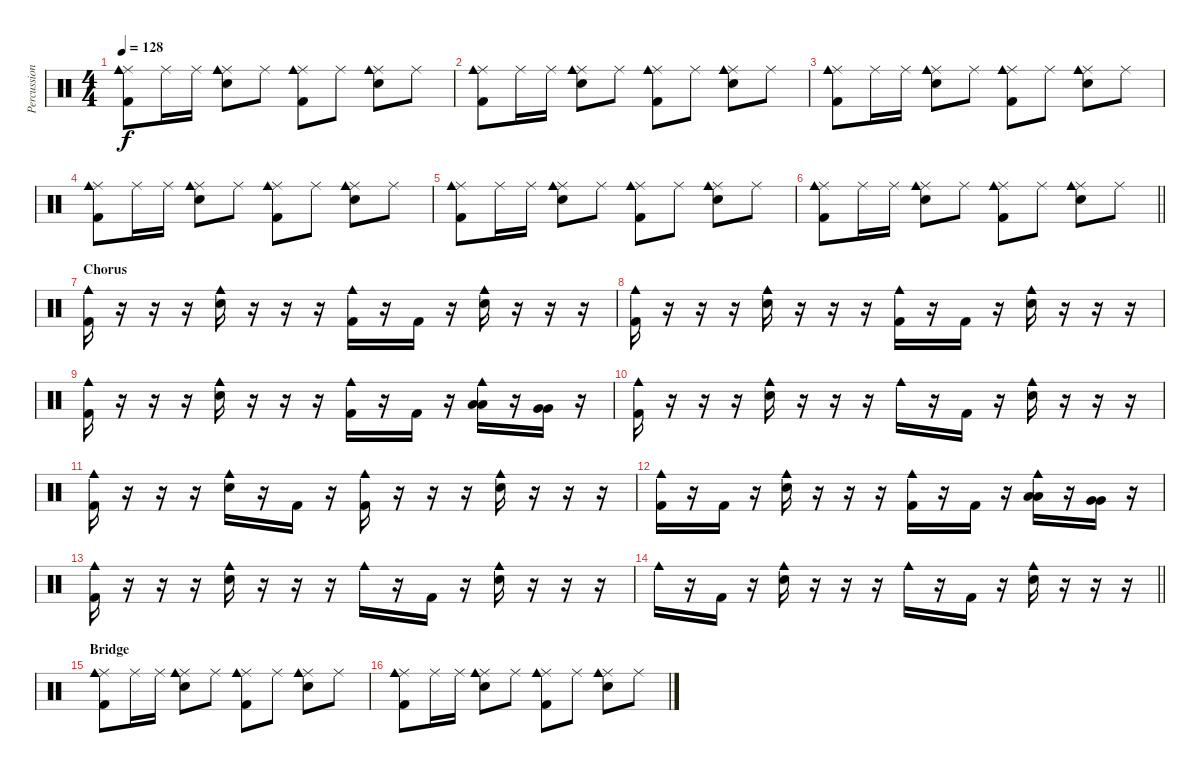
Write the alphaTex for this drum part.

\track ("Percussion" "Percussion") {instrument percussion}
\staff {score}
\articulation defaults
\ts (4 4)
\tempo 128
\clef neutral
\ks c
("Ride (middle)" "Cowbell medium (hit)" "Kick (hit) 2").8{dy f} "Ride (middle)".16 "Ride (middle)".16 ("Ride (middle)" "Cowbell medium (hit)" "Snare (hit) 2").8 "Ride (middle)".8 ("Ride (middle)" "Cowbell medium (hit)" "Kick (hit) 2").8 "Ride (middle)".8 ("Ride (middle)" "Cowbell medium (hit)" "Snare (hit) 2").8 "Ride (middle)".8 |
("Ride (middle)" "Cowbell medium (hit)" "Kick (hit) 2").8 "Ride (middle)".16 "Ride (middle)".16 ("Ride (middle)" "Cowbell medium (hit)" "Snare (hit) 2").8 "Ride (middle)".8 ("Ride (middle)" "Cowbell medium (hit)" "Kick (hit) 2").8 "Ride (middle)".8 ("Ride (middle)" "Cowbell medium (hit)" "Snare (hit) 2").8 "Ride (middle)".8 |
("Ride (middle)" "Cowbell medium (hit)" "Kick (hit) 2").8 "Ride (middle)".16 "Ride (middle)".16 ("Ride (middle)" "Cowbell medium (hit)" "Snare (hit) 2").8 "Ride (middle)".8 ("Ride (middle)" "Cowbell medium (hit)" "Kick (hit) 2").8 "Ride (middle)".8 ("Ride (middle)" "Cowbell medium (hit)" "Snare (hit) 2").8 "Ride (middle)".8 |
("Ride (middle)" "Cowbell medium (hit)" "Kick (hit) 2").8 "Ride (middle)".16 "Ride (middle)".16 ("Ride (middle)" "Cowbell medium (hit)" "Snare (hit) 2").8 "Ride (middle)".8 ("Ride (middle)" "Cowbell medium (hit)" "Kick (hit) 2").8 "Ride (middle)".8 ("Ride (middle)" "Cowbell medium (hit)" "Snare (hit) 2").8 "Ride (middle)".8 |
("Ride (middle)" "Cowbell medium (hit)" "Kick (hit) 2").8 "Ride (middle)".16 "Ride (middle)".16 ("Ride (middle)" "Cowbell medium (hit)" "Snare (hit) 2").8 "Ride (middle)".8 ("Ride (middle)" "Cowbell medium (hit)" "Kick (hit) 2").8 "Ride (middle)".8 ("Ride (middle)" "Cowbell medium (hit)" "Snare (hit) 2").8 "Ride (middle)".8 |
\barLineRight lightlight
("Ride (middle)" "Cowbell medium (hit)" "Kick (hit) 2").8 "Ride (middle)".16 "Ride (middle)".16 ("Ride (middle)" "Cowbell medium (hit)" "Snare (hit) 2").8 "Ride (middle)".8 ("Ride (middle)" "Cowbell medium (hit)" "Kick (hit) 2").8 "Ride (middle)".8 ("Ride (middle)" "Cowbell medium (hit)" "Snare (hit) 2").8 "Ride (middle)".8 |
\section ("" "Chorus")
("Cowbell medium (hit)" "Kick (hit) 2").16 r.16 r.16 r.16 ("Cowbell medium (hit)" "Snare (hit) 2").16 r.16 r.16 r.16 ("Cowbell medium (hit)" "Kick (hit) 2").16 r.16 "Kick (hit) 2".16 r.16 ("Cowbell medium (hit)" "Snare (hit) 2").16 r.16 r.16 r.16 |
("Cowbell medium (hit)" "Kick (hit) 2").16 r.16 r.16 r.16 ("Cowbell medium (hit)" "Snare (hit) 2").16 r.16 r.16 r.16 ("Cowbell medium (hit)" "Kick (hit) 2").16 r.16 "Kick (hit) 2".16 r.16 ("Cowbell medium (hit)" "Snare (hit) 2").16 r.16 r.16 r.16 |
("Cowbell medium (hit)" "Kick (hit) 2").16 r.16 r.16 r.16 ("Cowbell medium (hit)" "Snare (hit) 2").16 r.16 r.16 r.16 ("Cowbell medium (hit)" "Kick (hit) 2").16 r.16 "Kick (hit) 2".16 r.16 ("Cowbell medium (hit)" "Low Tom (hit)" "Low Tom (hit)").16 r.16 ("Very Low Tom (hit)" "Very Low Tom (hit)").16 r.16 |
("Cowbell medium (hit)" "Kick (hit) 2").16 r.16 r.16 r.16 ("Cowbell medium (hit)" "Snare (hit) 2").16 r.16 r.16 r.16 "Cowbell medium (hit)".16 r.16 "Kick (hit) 2".16 r.16 ("Cowbell medium (hit)" "Snare (hit) 2").16 r.16 r.16 r.16 |
("Cowbell medium (hit)" "Kick (hit) 2").16 r.16 r.16 r.16 ("Cowbell medium (hit)" "Snare (hit) 2").16 r.16 "Kick (hit) 2".16 r.16 ("Cowbell medium (hit)" "Kick (hit) 2").16 r.16 r.16 r.16 ("Cowbell medium (hit)" "Snare (hit) 2").16 r.16 r.16 r.16 |
("Cowbell medium (hit)" "Kick (hit) 2").16 r.16 "Kick (hit) 2".16 r.16 ("Cowbell medium (hit)" "Snare (hit) 2").16 r.16 r.16 r.16 ("Cowbell medium (hit)" "Kick (hit) 2").16 r.16 "Kick (hit) 2".16 r.16 ("Cowbell medium (hit)" "Low Tom (hit)" "Low Tom (hit)").16 r.16 ("Very Low Tom (hit)" "Very Low Tom (hit)").16 r.16 |
("Cowbell medium (hit)" "Kick (hit) 2").16 r.16 r.16 r.16 ("Cowbell medium (hit)" "Snare (hit) 2").16 r.16 r.16 r.16 "Cowbell medium (hit)".16 r.16 "Kick (hit) 2".16 r.16 ("Cowbell medium (hit)" "Snare (hit) 2").16 r.16 r.16 r.16 |
\barLineRight lightlight "Cowbell medium (hit)".16
r.16 "Kick (hit) 2".16 r.16 ("Cowbell medium (hit)" "Snare (hit) 2").16 r.16 r.16 r.16 "Cowbell medium (hit)".16 r.16 "Kick (hit) 2".16 r.16 ("Cowbell medium (hit)" "Snare (hit) 2").16 r.16 r.16 r.16 |
\section ("" "Bridge")
("Ride (middle)" "Cowbell medium (hit)" "Kick (hit) 2").8 "Ride (middle)".16 "Ride (middle)".16 ("Ride (middle)" "Cowbell medium (hit)" "Snare (hit) 2").8 "Ride (middle)".8 ("Ride (middle)" "Cowbell medium (hit)" "Kick (hit) 2").8 "Ride (middle)".8 ("Ride (middle)" "Cowbell medium (hit)" "Snare (hit) 2").8 "Ride (middle)".8 |
("Ride (middle)" "Cowbell medium (hit)" "Kick (hit) 2").8 "Ride (middle)".16 "Ride (middle)".16 ("Ride (middle)" "Cowbell medium (hit)" "Snare (hit) 2").8 "Ride (middle)".8 ("Ride (middle)" "Cowbell medium (hit)" "Kick (hit) 2").8 "Ride (middle)".8 ("Ride (middle)" "Cowbell medium (hit)" "Snare (hit) 2").8 "Ride (middle)".8
